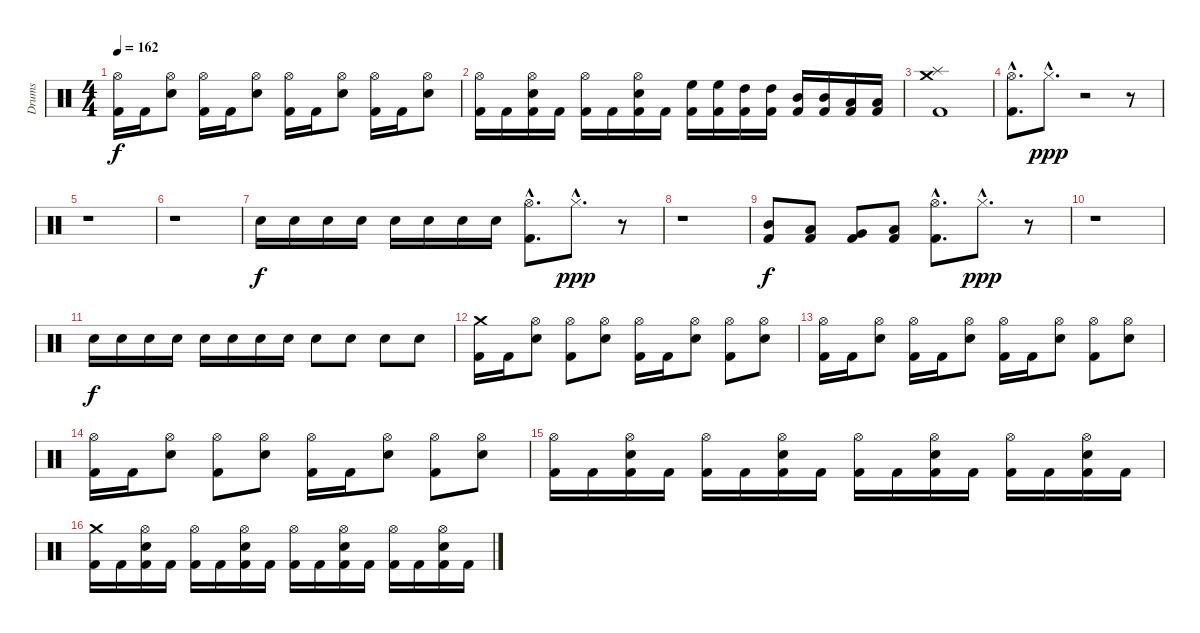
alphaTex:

\track ("Drums" "Drums") {instrument percussion}
\staff {score}
\articulation defaults
\ts (4 4)
\tempo 162
\clef neutral
\ks c
("Kick (hit) 2" "Hi-Hat (open)").16{dy f} "Kick (hit) 2".16 ("Snare (hit) 2" "Hi-Hat (open)").8 ("Kick (hit) 2" "Hi-Hat (open)").16 "Kick (hit) 2".16 ("Snare (hit) 2" "Hi-Hat (open)").8 ("Kick (hit) 2" "Hi-Hat (open)").16 "Kick (hit) 2".16 ("Snare (hit) 2" "Hi-Hat (open)").8 ("Kick (hit) 2" "Hi-Hat (open)").16 "Kick (hit) 2".16 ("Snare (hit) 2" "Hi-Hat (open)").8 |
("Kick (hit) 2" "Hi-Hat (open)").16 "Kick (hit) 2".16 ("Kick (hit) 2" "Snare (hit) 2" "Hi-Hat (open)").16 "Kick (hit) 2".16 ("Kick (hit) 2" "Hi-Hat (open)").16 "Kick (hit) 2".16 ("Kick (hit) 2" "Snare (hit) 2" "Hi-Hat (open)").16 "Kick (hit) 2".16 ("Kick (hit) 2" "High Floor Tom (hit)").16 ("Kick (hit) 2" "High Floor Tom (hit)").16 ("Kick (hit) 2" "High Tom (hit)").16 ("Kick (hit) 2" "High Tom (hit)").16 ("Kick (hit) 2" "Mid Tom (hit)").16 ("Kick (hit) 2" "Mid Tom (hit)").16 ("Kick (hit) 2" "Low Tom (hit)").16 ("Kick (hit) 2" "Low Tom (hit)").16 |
("Kick (hit) 2" "Splash (hit)" "Crash medium (hit)").1 |
\section ("" "")
("Kick (hit) 2"{hac} "Hi-Hat (open)"{hac}).8{d} "Hi-Hat (closed)"{hac}.8{d dy ppp} r.2 r.8 |
r.1 |
r.1 |
"Snare (hit) 2".16{dy f} "Snare (hit) 2".16 "Snare (hit) 2".16 "Snare (hit) 2".16 "Snare (hit) 2".16 "Snare (hit) 2".16 "Snare (hit) 2".16 "Snare (hit) 2".16 ("Kick (hit) 2"{hac} "Hi-Hat (open)"{hac}).8{d} "Hi-Hat (closed)"{hac}.8{d dy ppp} r.8 |
r.1 |
("Kick (hit) 2" "Mid Tom (hit)").8{dy f} ("Kick (hit) 2" "Low Tom (hit)").8 ("Kick (hit) 2" "Very Low Tom (hit)").8 ("Kick (hit) 2" "Low Floor Tom (hit)").8 ("Kick (hit) 2"{hac} "Hi-Hat (open)"{hac}).8{d} "Hi-Hat (closed)"{hac}.8{d dy ppp} r.8 |
r.1 |
"Snare (hit) 2".16{dy f} "Snare (hit) 2".16 "Snare (hit) 2".16 "Snare (hit) 2".16 "Snare (hit) 2".16 "Snare (hit) 2".16 "Snare (hit) 2".16 "Snare (hit) 2".16 "Snare (hit) 2".8 "Snare (hit) 2".8 "Snare (hit) 2".8 "Snare (hit) 2".8 |
\section ("" "")
("Kick (hit) 2" "Crash medium (hit)").16 "Kick (hit) 2".16 ("Snare (hit) 2" "Hi-Hat (open)").8 ("Kick (hit) 2" "Hi-Hat (open)").8 ("Snare (hit) 2" "Hi-Hat (open)").8 ("Kick (hit) 2" "Hi-Hat (open)").16 "Kick (hit) 2".16 ("Snare (hit) 2" "Hi-Hat (open)").8 ("Kick (hit) 2" "Hi-Hat (open)").8 ("Snare (hit) 2" "Hi-Hat (open)").8 |
("Kick (hit) 2" "Hi-Hat (open)").16 "Kick (hit) 2".16 ("Snare (hit) 2" "Hi-Hat (open)").8 ("Kick (hit) 2" "Hi-Hat (open)").16 "Kick (hit) 2".16 ("Snare (hit) 2" "Hi-Hat (open)").8 ("Kick (hit) 2" "Hi-Hat (open)").16 "Kick (hit) 2".16 ("Snare (hit) 2" "Hi-Hat (open)").8 ("Kick (hit) 2" "Hi-Hat (open)").8 ("Snare (hit) 2" "Hi-Hat (open)").8 |
("Kick (hit) 2" "Hi-Hat (open)").16 "Kick (hit) 2".16 ("Snare (hit) 2" "Hi-Hat (open)").8 ("Kick (hit) 2" "Hi-Hat (open)").8 ("Snare (hit) 2" "Hi-Hat (open)").8 ("Kick (hit) 2" "Hi-Hat (open)").16 "Kick (hit) 2".16 ("Snare (hit) 2" "Hi-Hat (open)").8 ("Kick (hit) 2" "Hi-Hat (open)").8 ("Snare (hit) 2" "Hi-Hat (open)").8 |
("Kick (hit) 2" "Hi-Hat (open)").16 "Kick (hit) 2".16 ("Kick (hit) 2" "Snare (hit) 2" "Hi-Hat (open)").16 "Kick (hit) 2".16 ("Kick (hit) 2" "Hi-Hat (open)").16 "Kick (hit) 2".16 ("Kick (hit) 2" "Snare (hit) 2" "Hi-Hat (open)").16 "Kick (hit) 2".16 ("Kick (hit) 2" "Hi-Hat (open)").16 "Kick (hit) 2".16 ("Kick (hit) 2" "Snare (hit) 2" "Hi-Hat (open)").16 "Kick (hit) 2".16 ("Kick (hit) 2" "Hi-Hat (open)").16 "Kick (hit) 2".16 ("Kick (hit) 2" "Snare (hit) 2" "Hi-Hat (open)").16 "Kick (hit) 2".16 |
("Kick (hit) 2" "Crash medium (hit)").16 "Kick (hit) 2".16 ("Kick (hit) 2" "Snare (hit) 2" "Hi-Hat (open)").16 "Kick (hit) 2".16 ("Kick (hit) 2" "Hi-Hat (open)").16 "Kick (hit) 2".16 ("Kick (hit) 2" "Snare (hit) 2" "Hi-Hat (open)").16 "Kick (hit) 2".16 ("Kick (hit) 2" "Hi-Hat (open)").16 "Kick (hit) 2".16 ("Kick (hit) 2" "Snare (hit) 2" "Hi-Hat (open)").16 "Kick (hit) 2".16 ("Kick (hit) 2" "Hi-Hat (open)").16 "Kick (hit) 2".16 ("Kick (hit) 2" "Snare (hit) 2" "Hi-Hat (open)").16 "Kick (hit) 2".16
